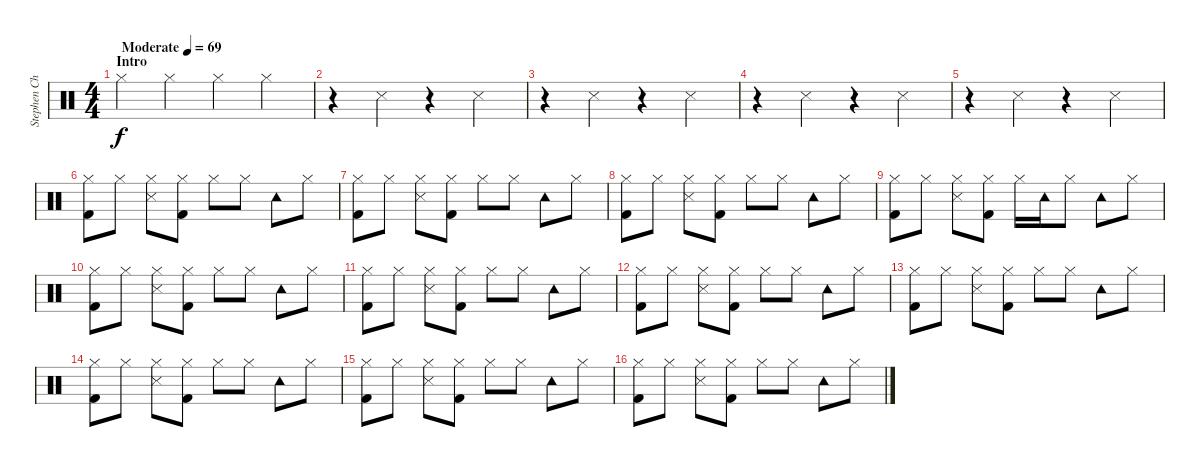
\track ("Stephen Chopek" "Stephen Ch") {instrument percussion}
\staff {score}
\articulation defaults
\ts (4 4)
\section ("" "Intro")
\tempo (69 "Moderate")
\clef neutral
\ks c "Hi-Hat (closed)".4{dy f} "Hi-Hat (closed)".4 "Hi-Hat (closed)".4 "Hi-Hat (closed)".4
|
r.4 "Snare (side stick) 3".4 r.4 "Snare (side stick) 3".4 |
r.4 "Snare (side stick) 3".4 r.4 "Snare (side stick) 3".4 |
r.4 "Snare (side stick) 3".4 r.4 "Snare (side stick) 3".4 |
r.4 "Snare (side stick) 3".4 r.4 "Snare (side stick) 3".4 |
("Hi-Hat (closed)" "Kick (hit) 2").8 "Hi-Hat (closed)".8 ("Hi-Hat (closed)" "Snare (side stick) 3").8 ("Hi-Hat (closed)" "Kick (hit) 2").8 "Hi-Hat (closed)".8 "Hi-Hat (closed)".8 "Tambourine (hit)".8 "Hi-Hat (closed)".8 |
("Hi-Hat (closed)" "Kick (hit) 2").8 "Hi-Hat (closed)".8 ("Hi-Hat (closed)" "Snare (side stick) 3").8 ("Hi-Hat (closed)" "Kick (hit) 2").8 "Hi-Hat (closed)".8 "Hi-Hat (closed)".8 "Tambourine (hit)".8 "Hi-Hat (closed)".8 |
("Hi-Hat (closed)" "Kick (hit) 2").8 "Hi-Hat (closed)".8 ("Hi-Hat (closed)" "Snare (side stick) 3").8 ("Hi-Hat (closed)" "Kick (hit) 2").8 "Hi-Hat (closed)".8 "Hi-Hat (closed)".8 "Tambourine (hit)".8 "Hi-Hat (closed)".8 |
("Hi-Hat (closed)" "Kick (hit) 2").8 "Hi-Hat (closed)".8 ("Hi-Hat (closed)" "Snare (side stick) 3").8 ("Hi-Hat (closed)" "Kick (hit) 2").8 "Hi-Hat (closed)".16 "Tambourine (hit)".16 "Hi-Hat (closed)".8 "Tambourine (hit)".8 "Hi-Hat (closed)".8 |
("Hi-Hat (closed)" "Kick (hit) 2").8 "Hi-Hat (closed)".8 ("Hi-Hat (closed)" "Snare (side stick) 3").8 ("Hi-Hat (closed)" "Kick (hit) 2").8 "Hi-Hat (closed)".8 "Hi-Hat (closed)".8 "Tambourine (hit)".8 "Hi-Hat (closed)".8 |
("Hi-Hat (closed)" "Kick (hit) 2").8 "Hi-Hat (closed)".8 ("Hi-Hat (closed)" "Snare (side stick) 3").8 ("Hi-Hat (closed)" "Kick (hit) 2").8 "Hi-Hat (closed)".8 "Hi-Hat (closed)".8 "Tambourine (hit)".8 "Hi-Hat (closed)".8 |
("Hi-Hat (closed)" "Kick (hit) 2").8 "Hi-Hat (closed)".8 ("Hi-Hat (closed)" "Snare (side stick) 3").8 ("Hi-Hat (closed)" "Kick (hit) 2").8 "Hi-Hat (closed)".8 "Hi-Hat (closed)".8 "Tambourine (hit)".8 "Hi-Hat (closed)".8 |
("Hi-Hat (closed)" "Kick (hit) 2").8 "Hi-Hat (closed)".8 ("Hi-Hat (closed)" "Snare (side stick) 3").8 ("Hi-Hat (closed)" "Kick (hit) 2").8 "Hi-Hat (closed)".8 "Hi-Hat (closed)".8 "Tambourine (hit)".8 "Hi-Hat (closed)".8 |
("Hi-Hat (closed)" "Kick (hit) 2").8 "Hi-Hat (closed)".8 ("Hi-Hat (closed)" "Snare (side stick) 3").8 ("Hi-Hat (closed)" "Kick (hit) 2").8 "Hi-Hat (closed)".8 "Hi-Hat (closed)".8 "Tambourine (hit)".8 "Hi-Hat (closed)".8 |
("Hi-Hat (closed)" "Kick (hit) 2").8 "Hi-Hat (closed)".8 ("Hi-Hat (closed)" "Snare (side stick) 3").8 ("Hi-Hat (closed)" "Kick (hit) 2").8 "Hi-Hat (closed)".8 "Hi-Hat (closed)".8 "Tambourine (hit)".8 "Hi-Hat (closed)".8 |
("Hi-Hat (closed)" "Kick (hit) 2").8 "Hi-Hat (closed)".8 ("Hi-Hat (closed)" "Snare (side stick) 3").8 ("Hi-Hat (closed)" "Kick (hit) 2").8 "Hi-Hat (closed)".8 "Hi-Hat (closed)".8 "Tambourine (hit)".8 "Hi-Hat (closed)".8
